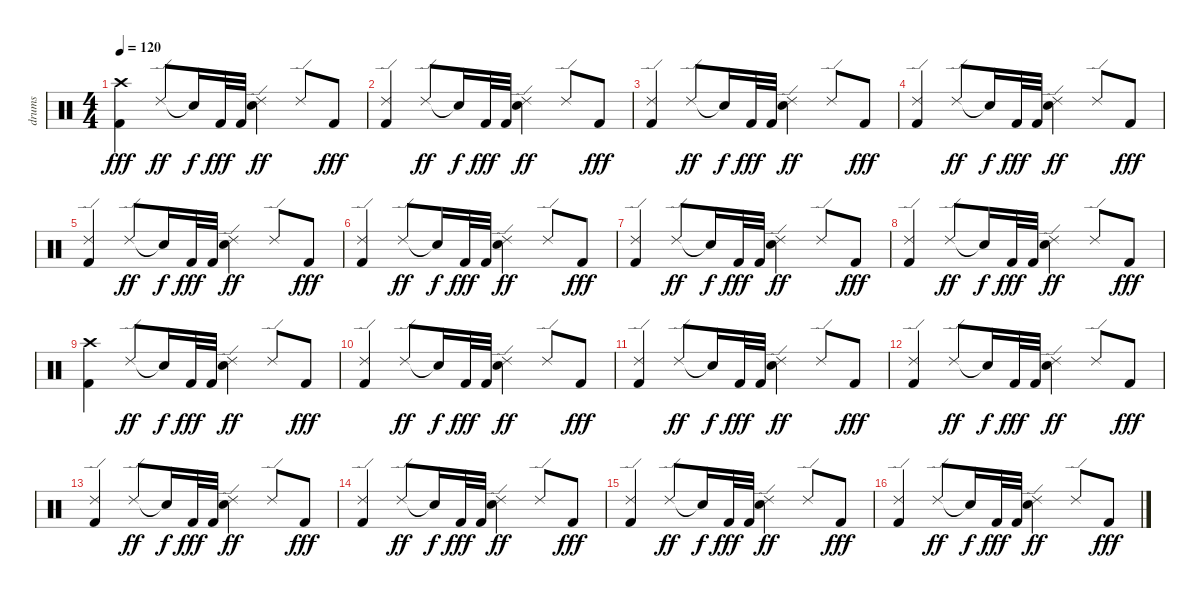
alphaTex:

\track ("drums" "drums") {instrument percussion}
\staff {score}
\articulation defaults
\ts (4 4)
\tempo 120
\clef neutral
\ks c
("Crash high (hit)" "Kick (hit) 2").4{dy fff} "Ride (edge) 2".8{dy ff} "Snare (hit)"{t}.16{dy f} "Kick (hit) 2".32{dy fff} "Kick (hit) 2".32 ("Ride (edge) 2" "Snare (hit) 2").4{dy ff} "Ride (edge) 2".8 "Kick (hit) 2".8{dy fff} |
("Ride (edge) 2" "Kick (hit) 2").4 "Ride (edge) 2".8{dy ff} "Snare (hit)"{t}.16{dy f} "Kick (hit) 2".32{dy fff} "Kick (hit) 2".32 ("Ride (edge) 2" "Snare (hit) 2").4{dy ff} "Ride (edge) 2".8 "Kick (hit) 2".8{dy fff} |
("Ride (edge) 2" "Kick (hit) 2").4 "Ride (edge) 2".8{dy ff} "Snare (hit)"{t}.16{dy f} "Kick (hit) 2".32{dy fff} "Kick (hit) 2".32 ("Ride (edge) 2" "Snare (hit) 2").4{dy ff} "Ride (edge) 2".8 "Kick (hit) 2".8{dy fff} |
("Ride (edge) 2" "Kick (hit) 2").4 "Ride (edge) 2".8{dy ff} "Snare (hit)"{t}.16{dy f} "Kick (hit) 2".32{dy fff} "Kick (hit) 2".32 ("Ride (edge) 2" "Snare (hit) 2").4{dy ff} "Ride (edge) 2".8 "Kick (hit) 2".8{dy fff} |
("Ride (edge) 2" "Kick (hit) 2").4 "Ride (edge) 2".8{dy ff} "Snare (hit)"{t}.16{dy f} "Kick (hit) 2".32{dy fff} "Kick (hit) 2".32 ("Ride (edge) 2" "Snare (hit) 2").4{dy ff} "Ride (edge) 2".8 "Kick (hit) 2".8{dy fff} |
("Ride (edge) 2" "Kick (hit) 2").4 "Ride (edge) 2".8{dy ff} "Snare (hit)"{t}.16{dy f} "Kick (hit) 2".32{dy fff} "Kick (hit) 2".32 ("Ride (edge) 2" "Snare (hit) 2").4{dy ff} "Ride (edge) 2".8 "Kick (hit) 2".8{dy fff} |
("Ride (edge) 2" "Kick (hit) 2").4 "Ride (edge) 2".8{dy ff} "Snare (hit)"{t}.16{dy f} "Kick (hit) 2".32{dy fff} "Kick (hit) 2".32 ("Ride (edge) 2" "Snare (hit) 2").4{dy ff} "Ride (edge) 2".8 "Kick (hit) 2".8{dy fff} |
("Ride (edge) 2" "Kick (hit) 2").4 "Ride (edge) 2".8{dy ff} "Snare (hit)"{t}.16{dy f} "Kick (hit) 2".32{dy fff} "Kick (hit) 2".32 ("Ride (edge) 2" "Snare (hit) 2").4{dy ff} "Ride (edge) 2".8 "Kick (hit) 2".8{dy fff} |
("Crash high (hit)" "Kick (hit) 2").4 "Ride (edge) 2".8{dy ff} "Snare (hit)"{t}.16{dy f} "Kick (hit) 2".32{dy fff} "Kick (hit) 2".32 ("Ride (edge) 2" "Snare (hit) 2").4{dy ff} "Ride (edge) 2".8 "Kick (hit) 2".8{dy fff} |
("Ride (edge) 2" "Kick (hit) 2").4 "Ride (edge) 2".8{dy ff} "Snare (hit)"{t}.16{dy f} "Kick (hit) 2".32{dy fff} "Kick (hit) 2".32 ("Ride (edge) 2" "Snare (hit) 2").4{dy ff} "Ride (edge) 2".8 "Kick (hit) 2".8{dy fff} |
("Ride (edge) 2" "Kick (hit) 2").4 "Ride (edge) 2".8{dy ff} "Snare (hit)"{t}.16{dy f} "Kick (hit) 2".32{dy fff} "Kick (hit) 2".32 ("Ride (edge) 2" "Snare (hit) 2").4{dy ff} "Ride (edge) 2".8 "Kick (hit) 2".8{dy fff} |
("Ride (edge) 2" "Kick (hit) 2").4 "Ride (edge) 2".8{dy ff} "Snare (hit)"{t}.16{dy f} "Kick (hit) 2".32{dy fff} "Kick (hit) 2".32 ("Ride (edge) 2" "Snare (hit) 2").4{dy ff} "Ride (edge) 2".8 "Kick (hit) 2".8{dy fff} |
("Ride (edge) 2" "Kick (hit) 2").4 "Ride (edge) 2".8{dy ff} "Snare (hit)"{t}.16{dy f} "Kick (hit) 2".32{dy fff} "Kick (hit) 2".32 ("Ride (edge) 2" "Snare (hit) 2").4{dy ff} "Ride (edge) 2".8 "Kick (hit) 2".8{dy fff} |
("Ride (edge) 2" "Kick (hit) 2").4 "Ride (edge) 2".8{dy ff} "Snare (hit)"{t}.16{dy f} "Kick (hit) 2".32{dy fff} "Kick (hit) 2".32 ("Ride (edge) 2" "Snare (hit) 2").4{dy ff} "Ride (edge) 2".8 "Kick (hit) 2".8{dy fff} |
("Ride (edge) 2" "Kick (hit) 2").4 "Ride (edge) 2".8{dy ff} "Snare (hit)"{t}.16{dy f} "Kick (hit) 2".32{dy fff} "Kick (hit) 2".32 ("Ride (edge) 2" "Snare (hit) 2").4{dy ff} "Ride (edge) 2".8 "Kick (hit) 2".8{dy fff} |
("Ride (edge) 2" "Kick (hit) 2").4 "Ride (edge) 2".8{dy ff} "Snare (hit)"{t}.16{dy f} "Kick (hit) 2".32{dy fff} "Kick (hit) 2".32 ("Ride (edge) 2" "Snare (hit) 2").4{dy ff} "Ride (edge) 2".8 "Kick (hit) 2".8{dy fff}
